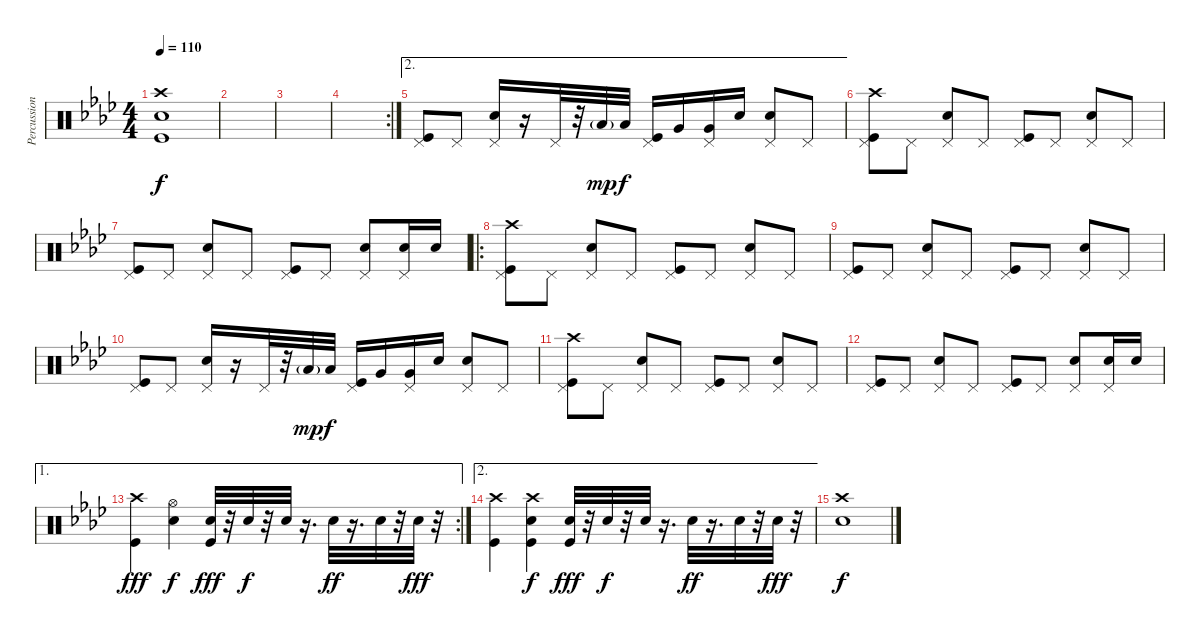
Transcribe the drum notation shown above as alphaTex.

\track ("Percussions" "Percussion") {instrument percussion}
\staff {score}
\articulation defaults
\ts (4 4)
\tempo 110
\clef neutral
\ks ab
("Crash high (hit)" "Electric Snare (hit)" "Kick (hit)").1{dy f} |
|
|
\rc 2
|
\ae 2
("Pedal Hi-Hat (hit)" "Kick (hit)").8 "Pedal Hi-Hat (hit)".8 ("Pedal Hi-Hat (hit)" "Electric Snare (hit)").16 r.16 "Pedal Hi-Hat (hit)".32 r.32 "Low Tom (hit)"{g}.32{dy mp} "Low Tom (hit)".32{dy f} ("Pedal Hi-Hat (hit)" "Kick (hit)").16 "Very Low Tom (hit)".16 ("Very Low Tom (hit)" "Pedal Hi-Hat (hit)").16 "Electric Snare (hit)".16 ("Electric Snare (hit)" "Pedal Hi-Hat (hit)").8 "Pedal Hi-Hat (hit)".8 |
("Pedal Hi-Hat (hit)" "Crash high (hit)" "Kick (hit)").8 "Pedal Hi-Hat (hit)".8 ("Pedal Hi-Hat (hit)" "Electric Snare (hit)").8 "Pedal Hi-Hat (hit)".8 ("Pedal Hi-Hat (hit)" "Kick (hit)").8 "Pedal Hi-Hat (hit)".8 ("Pedal Hi-Hat (hit)" "Electric Snare (hit)").8 "Pedal Hi-Hat (hit)".8 |
("Pedal Hi-Hat (hit)" "Kick (hit)").8 "Pedal Hi-Hat (hit)".8 ("Pedal Hi-Hat (hit)" "Electric Snare (hit)").8 "Pedal Hi-Hat (hit)".8 ("Pedal Hi-Hat (hit)" "Kick (hit)").8 "Pedal Hi-Hat (hit)".8 ("Pedal Hi-Hat (hit)" "Electric Snare (hit)").8 ("Pedal Hi-Hat (hit)" "Electric Snare (hit)").16 "Electric Snare (hit)".16 |
\ro
("Pedal Hi-Hat (hit)" "Crash high (hit)" "Kick (hit)").8 "Pedal Hi-Hat (hit)".8 ("Pedal Hi-Hat (hit)" "Electric Snare (hit)").8 "Pedal Hi-Hat (hit)".8 ("Pedal Hi-Hat (hit)" "Kick (hit)").8 "Pedal Hi-Hat (hit)".8 ("Pedal Hi-Hat (hit)" "Electric Snare (hit)").8 "Pedal Hi-Hat (hit)".8 |
("Pedal Hi-Hat (hit)" "Kick (hit)").8 "Pedal Hi-Hat (hit)".8 ("Pedal Hi-Hat (hit)" "Electric Snare (hit)").8 "Pedal Hi-Hat (hit)".8 ("Pedal Hi-Hat (hit)" "Kick (hit)").8 "Pedal Hi-Hat (hit)".8 ("Pedal Hi-Hat (hit)" "Electric Snare (hit)").8 "Pedal Hi-Hat (hit)".8 |
("Pedal Hi-Hat (hit)" "Kick (hit)").8 "Pedal Hi-Hat (hit)".8 ("Pedal Hi-Hat (hit)" "Electric Snare (hit)").16 r.16 "Pedal Hi-Hat (hit)".32 r.32 "Low Tom (hit)"{g}.32{dy mp} "Low Tom (hit)".32{dy f} ("Pedal Hi-Hat (hit)" "Kick (hit)").16 "Very Low Tom (hit)".16 ("Very Low Tom (hit)" "Pedal Hi-Hat (hit)").16 "Electric Snare (hit)".16 ("Electric Snare (hit)" "Pedal Hi-Hat (hit)").8 "Pedal Hi-Hat (hit)".8 |
("Pedal Hi-Hat (hit)" "Crash high (hit)" "Kick (hit)").8 "Pedal Hi-Hat (hit)".8 ("Pedal Hi-Hat (hit)" "Electric Snare (hit)").8 "Pedal Hi-Hat (hit)".8 ("Pedal Hi-Hat (hit)" "Kick (hit)").8 "Pedal Hi-Hat (hit)".8 ("Pedal Hi-Hat (hit)" "Electric Snare (hit)").8 "Pedal Hi-Hat (hit)".8 |
("Pedal Hi-Hat (hit)" "Kick (hit)").8 "Pedal Hi-Hat (hit)".8 ("Pedal Hi-Hat (hit)" "Electric Snare (hit)").8 "Pedal Hi-Hat (hit)".8 ("Pedal Hi-Hat (hit)" "Kick (hit)").8 "Pedal Hi-Hat (hit)".8 ("Pedal Hi-Hat (hit)" "Electric Snare (hit)").8 ("Pedal Hi-Hat (hit)" "Electric Snare (hit)").16 "Electric Snare (hit)".16 |
\ae 1
\rc 2
("Crash high (hit)" "Kick (hit)").4{dy fff} ("Hi-Hat (open)" "Electric Snare (hit)").4{dy f} ("Electric Snare (hit)" "Kick (hit)").32{dy fff} r.32 "Electric Snare (hit)".32{dy f} r.32 "Electric Snare (hit)".32 r.16{d} "Electric Snare (hit)".32{dy ff} r.16{d} "Electric Snare (hit)".32 r.32 "Electric Snare (hit)".32{dy fff} r.32 |
\ae 2
("Crash high (hit)" "Kick (hit)").4 ("Crash high (hit)" "Electric Snare (hit)" "Kick (hit)").4{dy f} ("Electric Snare (hit)" "Kick (hit)").32{dy fff} r.32 "Electric Snare (hit)".32{dy f} r.32 "Electric Snare (hit)".32 r.16{d} "Electric Snare (hit)".32{dy ff} r.16{d} "Electric Snare (hit)".32 r.32 "Electric Snare (hit)".32{dy fff} r.32 |
("Crash high (hit)" "Electric Snare (hit)").1{dy f}
